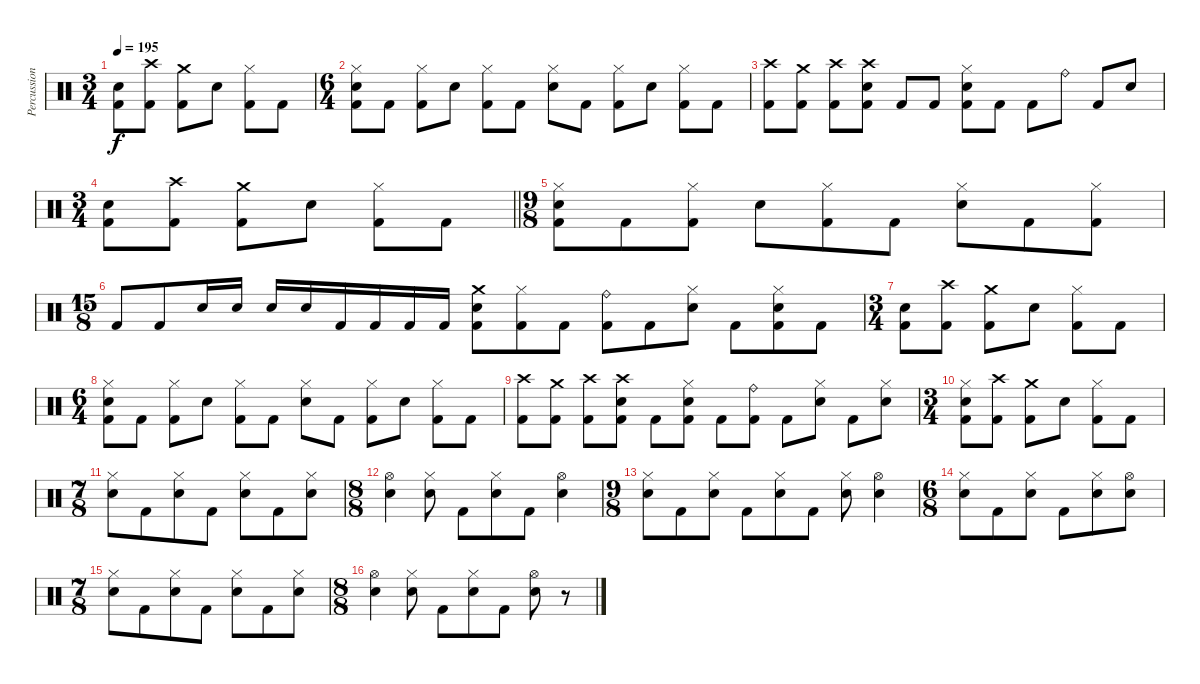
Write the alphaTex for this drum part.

\track ("Percussion" "Percussion") {instrument percussion}
\staff {score}
\articulation defaults
\ts (3 4)
\tempo 195
\clef neutral
\ks c
("Kick (hit) 2" "Electric Snare (hit)").8{dy f} ("Kick (hit) 2" "Crash high (hit)").8 ("Kick (hit) 2" "Crash medium (hit)").8 "Electric Snare (hit)".8 ("Kick (hit) 2" "Hi-Hat (closed)").8 "Kick (hit) 2".8 |
\ts (6 4)
("Kick (hit) 2" "Hi-Hat (closed)" "Electric Snare (hit)").8 "Kick (hit) 2".8 ("Kick (hit) 2" "Hi-Hat (closed)").8 "Electric Snare (hit)".8 ("Kick (hit) 2" "Hi-Hat (closed)").8 "Kick (hit) 2".8 ("Hi-Hat (closed)" "Electric Snare (hit)").8 "Kick (hit) 2".8 ("Kick (hit) 2" "Hi-Hat (closed)").8 "Electric Snare (hit)".8 ("Kick (hit) 2" "Hi-Hat (closed)").8 "Kick (hit) 2".8 |
("Kick (hit) 2" "Crash high (hit)").8 ("Kick (hit) 2" "Crash medium (hit)").8 ("Kick (hit) 2" "Crash high (hit)").8 ("Kick (hit) 2" "Crash high (hit)" "Electric Snare (hit)").8 "Kick (hit) 2".8 "Kick (hit) 2".8 ("Kick (hit) 2" "Hi-Hat (closed)" "Electric Snare (hit)").8 "Kick (hit) 2".8 "Kick (hit) 2".8 "Ride (bell)".8 "Kick (hit) 2".8 "Electric Snare (hit)".8 |
\ts (3 4)
\barLineRight lightlight
("Kick (hit) 2" "Electric Snare (hit)").8 ("Kick (hit) 2" "Crash high (hit)").8 ("Kick (hit) 2" "Crash medium (hit)").8 "Electric Snare (hit)".8 ("Kick (hit) 2" "Hi-Hat (closed)").8 "Kick (hit) 2".8 |
\ts (9 8)
("Kick (hit) 2" "Hi-Hat (closed)" "Electric Snare (hit)").8 "Kick (hit) 2".8 ("Kick (hit) 2" "Hi-Hat (closed)").8 "Electric Snare (hit)".8 ("Kick (hit) 2" "Hi-Hat (closed)").8 "Kick (hit) 2".8 ("Hi-Hat (closed)" "Electric Snare (hit)").8 "Kick (hit) 2".8 ("Kick (hit) 2" "Hi-Hat (closed)").8 |
\ts (15 8)
"Kick (hit) 2".8 "Kick (hit) 2".8 "Electric Snare (hit)".16 "Electric Snare (hit)".16 "Electric Snare (hit)".16 "Electric Snare (hit)".16 "Kick (hit) 2".16 "Kick (hit) 2".16 "Kick (hit) 2".16 "Kick (hit) 2".16 ("Kick (hit) 2" "Crash medium (hit)" "Electric Snare (hit)").8 ("Kick (hit) 2" "Hi-Hat (closed)").8 "Kick (hit) 2".8 ("Kick (hit) 2" "Ride (bell)").8 "Kick (hit) 2".8 ("Hi-Hat (closed)" "Electric Snare (hit)").8 "Kick (hit) 2".8 ("Kick (hit) 2" "Hi-Hat (closed)" "Electric Snare (hit)").8 "Kick (hit) 2".8 |
\ts (3 4)
("Kick (hit) 2" "Electric Snare (hit)").8 ("Kick (hit) 2" "Crash high (hit)").8 ("Kick (hit) 2" "Crash medium (hit)").8 "Electric Snare (hit)".8 ("Kick (hit) 2" "Hi-Hat (closed)").8 "Kick (hit) 2".8 |
\ts (6 4)
("Kick (hit) 2" "Hi-Hat (closed)" "Electric Snare (hit)").8 "Kick (hit) 2".8 ("Kick (hit) 2" "Hi-Hat (closed)").8 "Electric Snare (hit)".8 ("Kick (hit) 2" "Hi-Hat (closed)").8 "Kick (hit) 2".8 ("Hi-Hat (closed)" "Electric Snare (hit)").8 "Kick (hit) 2".8 ("Kick (hit) 2" "Hi-Hat (closed)").8 "Electric Snare (hit)".8 ("Kick (hit) 2" "Hi-Hat (closed)").8 "Kick (hit) 2".8 |
("Kick (hit) 2" "Crash high (hit)").8 ("Kick (hit) 2" "Crash medium (hit)").8 ("Kick (hit) 2" "Crash high (hit)").8 ("Kick (hit) 2" "Crash high (hit)" "Electric Snare (hit)").8 "Kick (hit) 2".8 ("Kick (hit) 2" "Hi-Hat (closed)" "Electric Snare (hit)").8 "Kick (hit) 2".8 ("Kick (hit) 2" "Ride (bell)").8 "Kick (hit) 2".8 ("Hi-Hat (closed)" "Electric Snare (hit)").8 "Kick (hit) 2".8 ("Hi-Hat (closed)" "Electric Snare (hit)").8 |
\ts (3 4)
("Kick (hit) 2" "Hi-Hat (closed)" "Electric Snare (hit)").8 ("Kick (hit) 2" "Crash high (hit)").8 ("Kick (hit) 2" "Crash medium (hit)").8 "Electric Snare (hit)".8 ("Kick (hit) 2" "Hi-Hat (closed)").8 "Kick (hit) 2".8 |
\ts (7 8)
("Hi-Hat (closed)" "Electric Snare (hit)").8 "Kick (hit) 2".8 ("Hi-Hat (closed)" "Electric Snare (hit)").8 "Kick (hit) 2".8 ("Hi-Hat (closed)" "Electric Snare (hit)").8 "Kick (hit) 2".8 ("Hi-Hat (closed)" "Electric Snare (hit)").8 |
\ts (8 8)
("Hi-Hat (open)" "Electric Snare (hit)").4 ("Hi-Hat (closed)" "Electric Snare (hit)").8 "Kick (hit) 2".8 ("Hi-Hat (closed)" "Electric Snare (hit)").8 "Kick (hit) 2".8 ("Hi-Hat (open)" "Electric Snare (hit)").4 |
\ts (9 8)
("Hi-Hat (closed)" "Electric Snare (hit)").8 "Kick (hit) 2".8 ("Hi-Hat (closed)" "Electric Snare (hit)").8 "Kick (hit) 2".8 ("Hi-Hat (closed)" "Electric Snare (hit)").8 "Kick (hit) 2".8 ("Hi-Hat (closed)" "Electric Snare (hit)").8 ("Hi-Hat (open)" "Electric Snare (hit)").4 |
\ts (6 8)
("Hi-Hat (closed)" "Electric Snare (hit)").8 "Kick (hit) 2".8 ("Hi-Hat (closed)" "Electric Snare (hit)").8 "Kick (hit) 2".8 ("Hi-Hat (closed)" "Electric Snare (hit)").8 ("Hi-Hat (open)" "Electric Snare (hit)").8 |
\ts (7 8)
("Hi-Hat (closed)" "Electric Snare (hit)").8 "Kick (hit) 2".8 ("Hi-Hat (closed)" "Electric Snare (hit)").8 "Kick (hit) 2".8 ("Hi-Hat (closed)" "Electric Snare (hit)").8 "Kick (hit) 2".8 ("Hi-Hat (closed)" "Electric Snare (hit)").8 |
\ts (8 8)
("Hi-Hat (open)" "Electric Snare (hit)").4 ("Hi-Hat (closed)" "Electric Snare (hit)").8 "Kick (hit) 2".8 ("Hi-Hat (closed)" "Electric Snare (hit)").8 "Kick (hit) 2".8 ("Hi-Hat (open)" "Electric Snare (hit)").8 r.8
